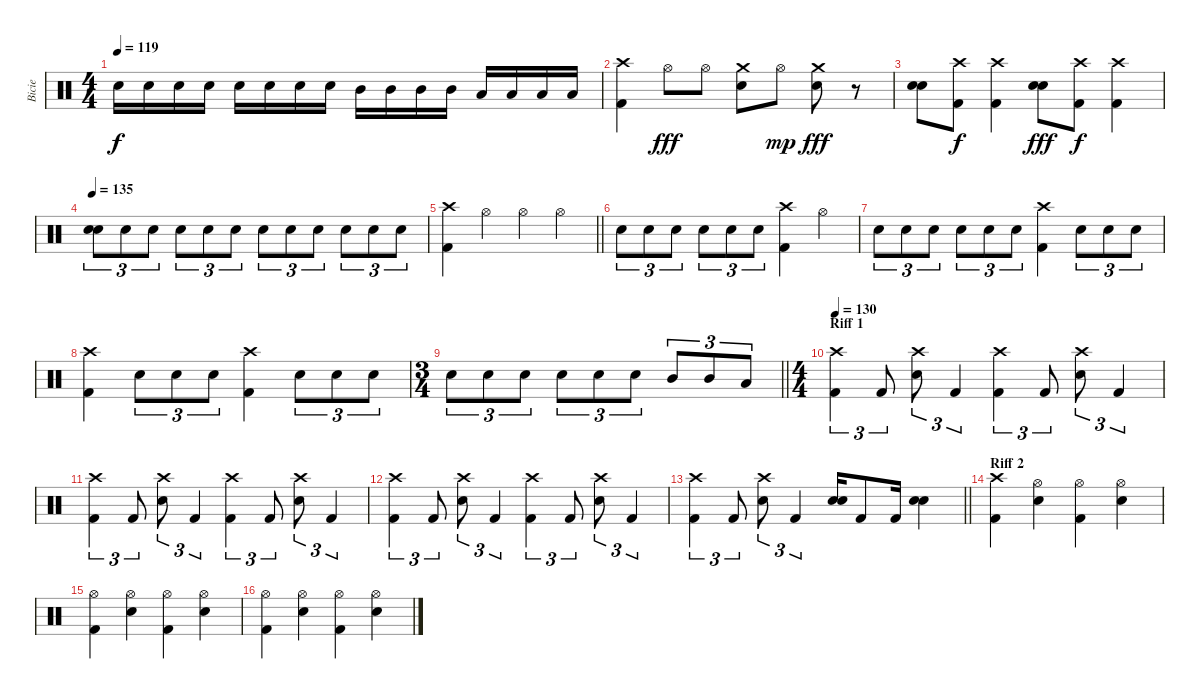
\track ("Bicie" "Bicie") {instrument percussion}
\staff {score}
\articulation defaults
\ts (4 4)
\tempo 119
\clef neutral
\ks c "Snare (hit) 2".16{dy f} "Snare (hit) 2".16 "Snare (hit) 2".16 "Snare (hit) 2".16 "Snare (hit) 2".16 "Snare (hit) 2".16 "Snare (hit) 2".16 "Snare (hit) 2".16 "Mid Tom (hit)".16 "Mid Tom (hit)".16 "Mid Tom (hit)".16 "Mid Tom (hit)".16 "Low Tom (hit)".16 "Low Tom (hit)".16 "Low Tom (hit)".16 "Low Tom (hit)".16
|
("Crash high (hit)" "Kick (hit) 2").4 "Hi-Hat (open)".8{dy fff} "Hi-Hat (open)".8 ("Crash medium (hit)" "Snare (hit) 2").8 "Hi-Hat (open)".8{dy mp} ("Crash medium (hit)" "Snare (hit) 2").8{dy fff} r.8 |
("Snare (hit) 2" "Snare (hit) 2").8 ("Crash high (hit)" "Kick (hit) 2").8{dy f} ("Crash high (hit)" "Kick (hit) 2").4 ("Snare (hit) 2" "Snare (hit) 2").8{dy fff} ("Crash high (hit)" "Kick (hit) 2").8{dy f} ("Crash high (hit)" "Kick (hit) 2").4 |
\tempo 135
("Snare (hit) 2" "Snare (hit) 2").8{tu (3 2)} "Snare (hit) 2".8{tu (3 2)} "Snare (hit) 2".8{tu (3 2)} "Snare (hit) 2".8{tu (3 2)} "Snare (hit) 2".8{tu (3 2)} "Snare (hit) 2".8{tu (3 2)} "Snare (hit) 2".8{tu (3 2)} "Snare (hit) 2".8{tu (3 2)} "Snare (hit) 2".8{tu (3 2)} "Snare (hit) 2".8{tu (3 2)} "Snare (hit) 2".8{tu (3 2)} "Snare (hit) 2".8{tu (3 2)} |
\barLineRight lightlight
("Crash high (hit)" "Kick (hit) 2").4 "Hi-Hat (open)".4 "Hi-Hat (open)".4 "Hi-Hat (open)".4 |
\section ("" "")
"Snare (hit) 2".8{tu (3 2)} "Snare (hit) 2".8{tu (3 2)} "Snare (hit) 2".8{tu (3 2)} "Snare (hit) 2".8{tu (3 2)} "Snare (hit) 2".8{tu (3 2)} "Snare (hit) 2".8{tu (3 2)} ("Crash high (hit)" "Kick (hit) 2").4 "Hi-Hat (open)".4 |
"Snare (hit) 2".8{tu (3 2)} "Snare (hit) 2".8{tu (3 2)} "Snare (hit) 2".8{tu (3 2)} "Snare (hit) 2".8{tu (3 2)} "Snare (hit) 2".8{tu (3 2)} "Snare (hit) 2".8{tu (3 2)} ("Crash high (hit)" "Kick (hit) 2").4 "Snare (hit) 2".8{tu (3 2)} "Snare (hit) 2".8{tu (3 2)} "Snare (hit) 2".8{tu (3 2)} |
("Crash high (hit)" "Kick (hit) 2").4 "Snare (hit) 2".8{tu (3 2)} "Snare (hit) 2".8{tu (3 2)} "Snare (hit) 2".8{tu (3 2)} ("Crash high (hit)" "Kick (hit) 2").4 "Snare (hit) 2".8{tu (3 2)} "Snare (hit) 2".8{tu (3 2)} "Snare (hit) 2".8{tu (3 2)} |
\ts (3 4)
\barLineRight lightlight "Snare (hit) 2".8{tu (3 2)} "Snare (hit) 2".8{tu (3 2)} "Snare (hit) 2".8{tu (3 2)} "Snare (hit) 2".8{tu (3 2)} "Snare (hit) 2".8{tu (3 2)} "Snare (hit) 2".8{tu (3 2)} "Mid Tom (hit)".8{tu (3 2)} "Mid Tom (hit)".8{tu (3 2)} "Low Tom (hit)".8{tu (3 2)}
|
\ts (4 4)
\section ("" "Riff 1")
\tempo 130
("Crash high (hit)" "Kick (hit) 2").4{tu (3 2)} "Kick (hit) 2".8{tu (3 2)} ("Crash high (hit)" "Snare (hit) 2").8{tu (3 2)} "Kick (hit) 2".4{tu (3 2)} ("Crash high (hit)" "Kick (hit) 2").4{tu (3 2)} "Kick (hit) 2".8{tu (3 2)} ("Crash high (hit)" "Snare (hit) 2").8{tu (3 2)} "Kick (hit) 2".4{tu (3 2)} |
("Crash high (hit)" "Kick (hit) 2").4{tu (3 2)} "Kick (hit) 2".8{tu (3 2)} ("Crash high (hit)" "Snare (hit) 2").8{tu (3 2)} "Kick (hit) 2".4{tu (3 2)} ("Crash high (hit)" "Kick (hit) 2").4{tu (3 2)} "Kick (hit) 2".8{tu (3 2)} ("Crash high (hit)" "Snare (hit) 2").8{tu (3 2)} "Kick (hit) 2".4{tu (3 2)} |
("Crash high (hit)" "Kick (hit) 2").4{tu (3 2)} "Kick (hit) 2".8{tu (3 2)} ("Crash high (hit)" "Snare (hit) 2").8{tu (3 2)} "Kick (hit) 2".4{tu (3 2)} ("Crash high (hit)" "Kick (hit) 2").4{tu (3 2)} "Kick (hit) 2".8{tu (3 2)} ("Crash high (hit)" "Snare (hit) 2").8{tu (3 2)} "Kick (hit) 2".4{tu (3 2)} |
\barLineRight lightlight
("Crash high (hit)" "Kick (hit) 2").4{tu (3 2)} "Kick (hit) 2".8{tu (3 2)} ("Crash high (hit)" "Snare (hit) 2").8{tu (3 2)} "Kick (hit) 2".4{tu (3 2)} ("Snare (hit) 2" "Snare (hit) 2").16 "Kick (hit) 2".8 "Kick (hit) 2".16 ("Snare (hit) 2" "Snare (hit) 2").4 |
\section ("" "Riff 2")
("Crash high (hit)" "Kick (hit) 2").4 ("Hi-Hat (open)" "Snare (hit) 2").4 ("Hi-Hat (open)" "Kick (hit) 2").4 ("Hi-Hat (open)" "Snare (hit) 2").4 |
("Hi-Hat (open)" "Kick (hit) 2").4 ("Hi-Hat (open)" "Snare (hit) 2").4 ("Hi-Hat (open)" "Kick (hit) 2").4 ("Hi-Hat (open)" "Snare (hit) 2").4 |
("Hi-Hat (open)" "Kick (hit) 2").4 ("Hi-Hat (open)" "Snare (hit) 2").4 ("Hi-Hat (open)" "Kick (hit) 2").4 ("Hi-Hat (open)" "Snare (hit) 2").4
